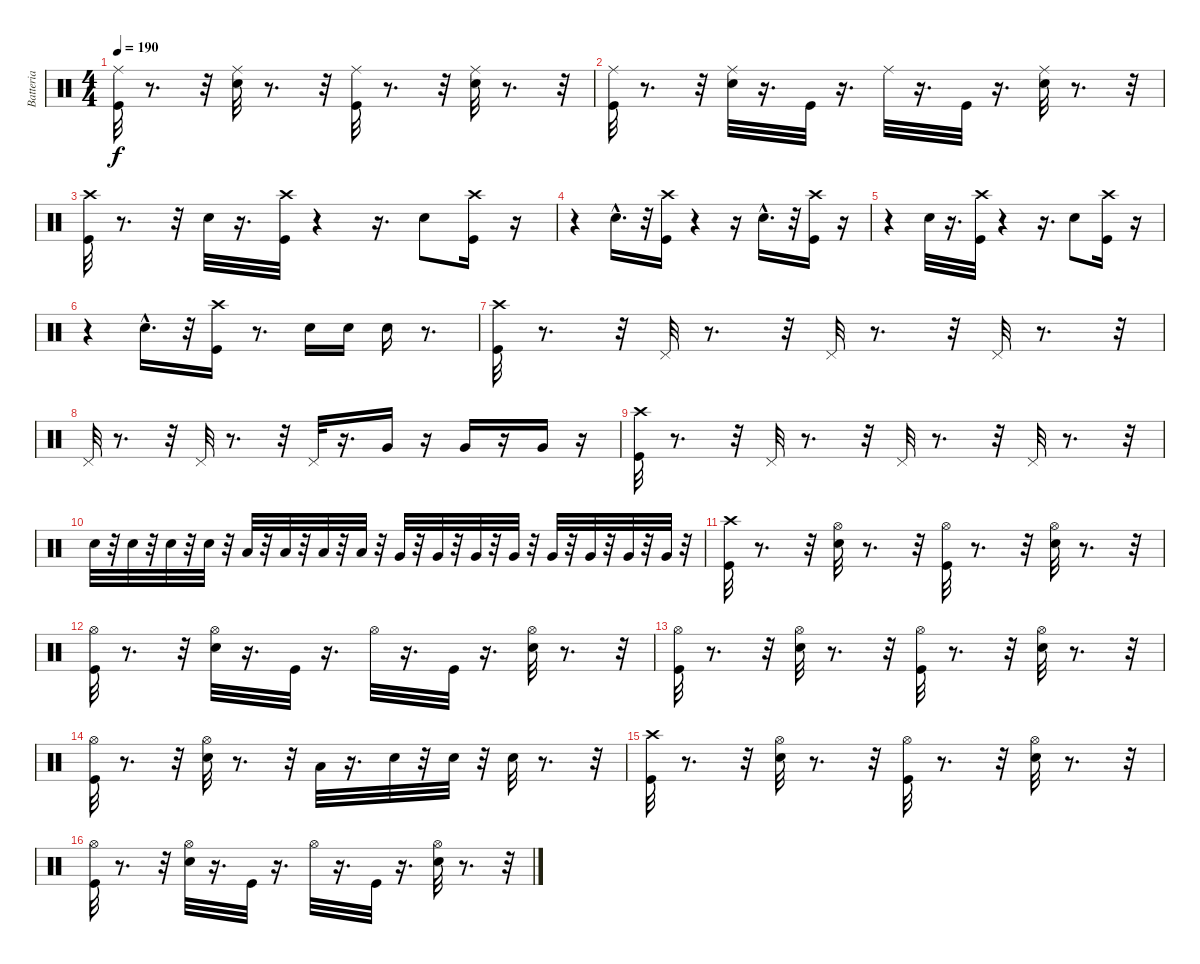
\track ("Batteria" "Batteria") {instrument percussion}
\staff {score}
\articulation defaults
\ts (4 4)
\tempo 190
\clef neutral
\ks c
("Ride (middle)" "Kick (hit)").32{dy f} r.8{d} r.32 ("Snare (hit) 2" "Ride (middle)").32 r.8{d} r.32 ("Ride (middle)" "Kick (hit)").32 r.8{d} r.32 ("Ride (middle)" "Snare (hit) 2").32 r.8{d} r.32 |
("Ride (middle)" "Kick (hit)").32 r.8{d} r.32 ("Snare (hit) 2" "Ride (middle)").32 r.16{d} "Kick (hit)".32 r.16{d} "Ride (middle)".32 r.16{d} "Kick (hit)".32 r.16{d} ("Ride (middle)" "Snare (hit) 2").32 r.8{d} r.32 |
("Kick (hit)" "Crash high (hit)").32 r.8{d} r.32 "Snare (hit) 2".32 r.16{d} ("Kick (hit)" "Crash high (hit)").32 r.4 r.16{d} "Snare (hit) 2".8 ("Kick (hit)" "Crash high (hit)").16 r.16 |
r.4 "Snare (hit) 2"{hac}.16{d} r.32 ("Kick (hit)" "Crash high (hit)").16 r.4 r.16 "Snare (hit) 2"{hac}.16{d} r.32 ("Kick (hit)" "Crash high (hit)").16 r.16 |
r.4 "Snare (hit) 2".32 r.16{d} ("Kick (hit)" "Crash high (hit)").32 r.4 r.16{d} "Snare (hit) 2".8 ("Kick (hit)" "Crash high (hit)").16 r.16 |
r.4 "Snare (hit) 2"{hac}.16{d} r.32 ("Kick (hit)" "Crash high (hit)").16 r.8{d} "Snare (hit) 2".16 "Snare (hit) 2".16 "Snare (hit) 2".16 r.8{d} |
("Crash high (hit)" "Kick (hit)").32 r.8{d} r.32 "Pedal Hi-Hat (hit)".32 r.8{d} r.32 "Pedal Hi-Hat (hit)".32 r.8{d} r.32 "Pedal Hi-Hat (hit)".32 r.8{d} r.32 |
"Pedal Hi-Hat (hit)".32 r.8{d} r.32 "Pedal Hi-Hat (hit)".32 r.8{d} r.32 "Pedal Hi-Hat (hit)".32 r.16{d} "Very Low Tom (hit)".16 r.16 "Very Low Tom (hit)".16 r.16 "Very Low Tom (hit)".16 r.16 |
("Crash high (hit)" "Kick (hit)").32 r.8{d} r.32 "Pedal Hi-Hat (hit)".32 r.8{d} r.32 "Pedal Hi-Hat (hit)".32 r.8{d} r.32 "Pedal Hi-Hat (hit)".32 r.8{d} r.32 |
"Snare (hit) 2".32 r.32 "Snare (hit) 2".32 r.32 "Snare (hit) 2".32 r.32 "Snare (hit) 2".32 r.32 "Low Tom (hit)".32 r.32 "Low Tom (hit)".32 r.32 "Low Tom (hit)".32 r.32 "Low Tom (hit)".32 r.32 "Very Low Tom (hit)".32 r.32 "Very Low Tom (hit)".32 r.32 "Very Low Tom (hit)".32 r.32 "Very Low Tom (hit)".32 r.32 "Very Low Tom (hit)".32 r.32 "Very Low Tom (hit)".32 r.32 "Very Low Tom (hit)".32 r.32 "Very Low Tom (hit)".32 r.32 |
("Kick (hit)" "Crash high (hit)").32 r.8{d} r.32 ("Hi-Hat (open)" "Snare (hit) 2").32 r.8{d} r.32 ("Hi-Hat (open)" "Kick (hit)").32 r.8{d} r.32 ("Snare (hit) 2" "Hi-Hat (open)").32 r.8{d} r.32 |
("Kick (hit)" "Hi-Hat (open)").32 r.8{d} r.32 ("Hi-Hat (open)" "Snare (hit) 2").32 r.16{d} "Kick (hit)".32 r.16{d} "Hi-Hat (open)".32 r.16{d} "Kick (hit)".32 r.16{d} ("Hi-Hat (open)" "Snare (hit) 2").32 r.8{d} r.32 |
("Hi-Hat (open)" "Kick (hit)").32 r.8{d} r.32 ("Snare (hit) 2" "Hi-Hat (open)").32 r.8{d} r.32 ("Hi-Hat (open)" "Kick (hit)").32 r.8{d} r.32 ("Hi-Hat (open)" "Snare (hit) 2").32 r.8{d} r.32 |
("Kick (hit)" "Hi-Hat (open)").32 r.8{d} r.32 ("Snare (hit) 2" "Hi-Hat (open)").32 r.8{d} r.32 "Low Tom (hit)".32 r.16{d} "Snare (hit) 2".32 r.32 "Snare (hit) 2".32 r.32 "Snare (hit) 2".32 r.8{d} r.32 |
("Kick (hit)" "Crash high (hit)").32 r.8{d} r.32 ("Hi-Hat (open)" "Snare (hit) 2").32 r.8{d} r.32 ("Hi-Hat (open)" "Kick (hit)").32 r.8{d} r.32 ("Snare (hit) 2" "Hi-Hat (open)").32 r.8{d} r.32 |
("Kick (hit)" "Hi-Hat (open)").32 r.8{d} r.32 ("Hi-Hat (open)" "Snare (hit) 2").32 r.16{d} "Kick (hit)".32 r.16{d} "Hi-Hat (open)".32 r.16{d} "Kick (hit)".32 r.16{d} ("Hi-Hat (open)" "Snare (hit) 2").32 r.8{d} r.32
